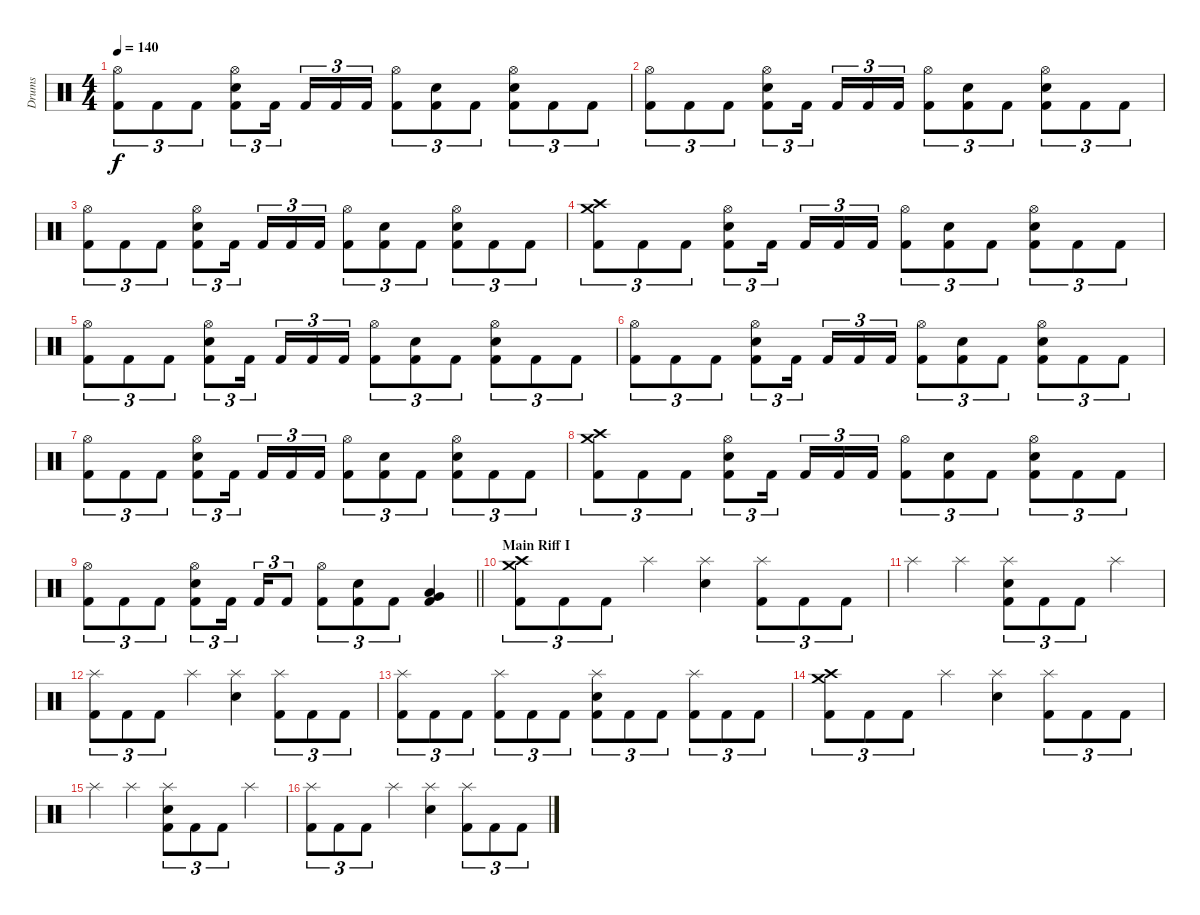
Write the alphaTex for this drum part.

\track ("Drums" "Drums") {instrument percussion}
\staff {score}
\articulation defaults
\ts (4 4)
\tempo 140
\clef neutral
\ks c
("Hi-Hat (open)" "Kick (hit) 2").8{tu (3 2) dy f} "Kick (hit) 2".8{tu (3 2)} "Kick (hit) 2".8{tu (3 2)} ("Hi-Hat (open)" "Electric Snare (hit)" "Kick (hit) 2").8{tu (3 2)} "Kick (hit) 2".16{tu (3 2) beam splitsecondary} "Kick (hit) 2".16{tu (3 2)} "Kick (hit) 2".16{tu (3 2)} "Kick (hit) 2".16{tu (3 2)} ("Hi-Hat (open)" "Kick (hit) 2").8{tu (3 2)} ("Electric Snare (hit)" "Kick (hit) 2").8{tu (3 2)} "Kick (hit) 2".8{tu (3 2)} ("Hi-Hat (open)" "Electric Snare (hit)" "Kick (hit) 2").8{tu (3 2)} "Kick (hit) 2".8{tu (3 2)} "Kick (hit) 2".8{tu (3 2)} |
("Hi-Hat (open)" "Kick (hit) 2").8{tu (3 2)} "Kick (hit) 2".8{tu (3 2)} "Kick (hit) 2".8{tu (3 2)} ("Hi-Hat (open)" "Electric Snare (hit)" "Kick (hit) 2").8{tu (3 2)} "Kick (hit) 2".16{tu (3 2) beam splitsecondary} "Kick (hit) 2".16{tu (3 2)} "Kick (hit) 2".16{tu (3 2)} "Kick (hit) 2".16{tu (3 2)} ("Hi-Hat (open)" "Kick (hit) 2").8{tu (3 2)} ("Electric Snare (hit)" "Kick (hit) 2").8{tu (3 2)} "Kick (hit) 2".8{tu (3 2)} ("Hi-Hat (open)" "Electric Snare (hit)" "Kick (hit) 2").8{tu (3 2)} "Kick (hit) 2".8{tu (3 2)} "Kick (hit) 2".8{tu (3 2)} |
("Hi-Hat (open)" "Kick (hit) 2").8{tu (3 2)} "Kick (hit) 2".8{tu (3 2)} "Kick (hit) 2".8{tu (3 2)} ("Hi-Hat (open)" "Electric Snare (hit)" "Kick (hit) 2").8{tu (3 2)} "Kick (hit) 2".16{tu (3 2) beam splitsecondary} "Kick (hit) 2".16{tu (3 2)} "Kick (hit) 2".16{tu (3 2)} "Kick (hit) 2".16{tu (3 2)} ("Hi-Hat (open)" "Kick (hit) 2").8{tu (3 2)} ("Electric Snare (hit)" "Kick (hit) 2").8{tu (3 2)} "Kick (hit) 2".8{tu (3 2)} ("Hi-Hat (open)" "Electric Snare (hit)" "Kick (hit) 2").8{tu (3 2)} "Kick (hit) 2".8{tu (3 2)} "Kick (hit) 2".8{tu (3 2)} |
("Crash medium (hit)" "Crash high (hit)" "Kick (hit) 2").8{tu (3 2)} "Kick (hit) 2".8{tu (3 2)} "Kick (hit) 2".8{tu (3 2)} ("Hi-Hat (open)" "Electric Snare (hit)" "Kick (hit) 2").8{tu (3 2)} "Kick (hit) 2".16{tu (3 2) beam splitsecondary} "Kick (hit) 2".16{tu (3 2)} "Kick (hit) 2".16{tu (3 2)} "Kick (hit) 2".16{tu (3 2)} ("Hi-Hat (open)" "Kick (hit) 2").8{tu (3 2)} ("Electric Snare (hit)" "Kick (hit) 2").8{tu (3 2)} "Kick (hit) 2".8{tu (3 2)} ("Hi-Hat (open)" "Electric Snare (hit)" "Kick (hit) 2").8{tu (3 2)} "Kick (hit) 2".8{tu (3 2)} "Kick (hit) 2".8{tu (3 2)} |
("Hi-Hat (open)" "Kick (hit) 2").8{tu (3 2)} "Kick (hit) 2".8{tu (3 2)} "Kick (hit) 2".8{tu (3 2)} ("Hi-Hat (open)" "Electric Snare (hit)" "Kick (hit) 2").8{tu (3 2)} "Kick (hit) 2".16{tu (3 2) beam splitsecondary} "Kick (hit) 2".16{tu (3 2)} "Kick (hit) 2".16{tu (3 2)} "Kick (hit) 2".16{tu (3 2)} ("Hi-Hat (open)" "Kick (hit) 2").8{tu (3 2)} ("Electric Snare (hit)" "Kick (hit) 2").8{tu (3 2)} "Kick (hit) 2".8{tu (3 2)} ("Hi-Hat (open)" "Electric Snare (hit)" "Kick (hit) 2").8{tu (3 2)} "Kick (hit) 2".8{tu (3 2)} "Kick (hit) 2".8{tu (3 2)} |
("Hi-Hat (open)" "Kick (hit) 2").8{tu (3 2)} "Kick (hit) 2".8{tu (3 2)} "Kick (hit) 2".8{tu (3 2)} ("Hi-Hat (open)" "Electric Snare (hit)" "Kick (hit) 2").8{tu (3 2)} "Kick (hit) 2".16{tu (3 2) beam splitsecondary} "Kick (hit) 2".16{tu (3 2)} "Kick (hit) 2".16{tu (3 2)} "Kick (hit) 2".16{tu (3 2)} ("Hi-Hat (open)" "Kick (hit) 2").8{tu (3 2)} ("Electric Snare (hit)" "Kick (hit) 2").8{tu (3 2)} "Kick (hit) 2".8{tu (3 2)} ("Hi-Hat (open)" "Electric Snare (hit)" "Kick (hit) 2").8{tu (3 2)} "Kick (hit) 2".8{tu (3 2)} "Kick (hit) 2".8{tu (3 2)} |
("Hi-Hat (open)" "Kick (hit) 2").8{tu (3 2)} "Kick (hit) 2".8{tu (3 2)} "Kick (hit) 2".8{tu (3 2)} ("Hi-Hat (open)" "Electric Snare (hit)" "Kick (hit) 2").8{tu (3 2)} "Kick (hit) 2".16{tu (3 2) beam splitsecondary} "Kick (hit) 2".16{tu (3 2)} "Kick (hit) 2".16{tu (3 2)} "Kick (hit) 2".16{tu (3 2)} ("Hi-Hat (open)" "Kick (hit) 2").8{tu (3 2)} ("Electric Snare (hit)" "Kick (hit) 2").8{tu (3 2)} "Kick (hit) 2".8{tu (3 2)} ("Hi-Hat (open)" "Electric Snare (hit)" "Kick (hit) 2").8{tu (3 2)} "Kick (hit) 2".8{tu (3 2)} "Kick (hit) 2".8{tu (3 2)} |
("Crash medium (hit)" "Crash high (hit)" "Kick (hit) 2").8{tu (3 2)} "Kick (hit) 2".8{tu (3 2)} "Kick (hit) 2".8{tu (3 2)} ("Hi-Hat (open)" "Electric Snare (hit)" "Kick (hit) 2").8{tu (3 2)} "Kick (hit) 2".16{tu (3 2) beam splitsecondary} "Kick (hit) 2".16{tu (3 2)} "Kick (hit) 2".16{tu (3 2)} "Kick (hit) 2".16{tu (3 2)} ("Hi-Hat (open)" "Kick (hit) 2").8{tu (3 2)} ("Electric Snare (hit)" "Kick (hit) 2").8{tu (3 2)} "Kick (hit) 2".8{tu (3 2)} ("Hi-Hat (open)" "Electric Snare (hit)" "Kick (hit) 2").8{tu (3 2)} "Kick (hit) 2".8{tu (3 2)} "Kick (hit) 2".8{tu (3 2)} |
\barLineRight lightlight
("Hi-Hat (open)" "Kick (hit) 2").8{tu (3 2)} "Kick (hit) 2".8{tu (3 2)} "Kick (hit) 2".8{tu (3 2)} ("Hi-Hat (open)" "Electric Snare (hit)" "Kick (hit) 2").8{tu (3 2)} "Kick (hit) 2".16{tu (3 2) beam splitsecondary} "Kick (hit) 2".16{tu (3 2)} "Kick (hit) 2".8{tu (3 2)} ("Hi-Hat (open)" "Kick (hit) 2").8{tu (3 2)} ("Electric Snare (hit)" "Kick (hit) 2").8{tu (3 2)} "Kick (hit) 2".8{tu (3 2)} ("Low Tom (hit)" "Very Low Tom (hit)" "Kick (hit) 2").4 |
\section ("" "Main Riff I")
("Crash medium (hit)" "Crash high (hit)" "Kick (hit) 2").8{tu (3 2)} "Kick (hit) 2".8{tu (3 2)} "Kick (hit) 2".8{tu (3 2)} "Splash (hit)".4 ("Splash (hit)" "Electric Snare (hit)").4 ("Splash (hit)" "Kick (hit) 2").8{tu (3 2)} "Kick (hit) 2".8{tu (3 2)} "Kick (hit) 2".8{tu (3 2)} |
"Splash (hit)".4 "Splash (hit)".4 ("Splash (hit)" "Electric Snare (hit)" "Kick (hit) 2").8{tu (3 2)} "Kick (hit) 2".8{tu (3 2)} "Kick (hit) 2".8{tu (3 2)} "Splash (hit)".4 |
("Splash (hit)" "Kick (hit) 2").8{tu (3 2)} "Kick (hit) 2".8{tu (3 2)} "Kick (hit) 2".8{tu (3 2)} "Splash (hit)".4 ("Splash (hit)" "Electric Snare (hit)").4 ("Splash (hit)" "Kick (hit) 2").8{tu (3 2)} "Kick (hit) 2".8{tu (3 2)} "Kick (hit) 2".8{tu (3 2)} |
("Splash (hit)" "Kick (hit) 2").8{tu (3 2)} "Kick (hit) 2".8{tu (3 2)} "Kick (hit) 2".8{tu (3 2)} ("Splash (hit)" "Kick (hit) 2").8{tu (3 2)} "Kick (hit) 2".8{tu (3 2)} "Kick (hit) 2".8{tu (3 2)} ("Splash (hit)" "Electric Snare (hit)" "Kick (hit) 2").8{tu (3 2)} "Kick (hit) 2".8{tu (3 2)} "Kick (hit) 2".8{tu (3 2)} ("Splash (hit)" "Kick (hit) 2").8{tu (3 2)} "Kick (hit) 2".8{tu (3 2)} "Kick (hit) 2".8{tu (3 2)} |
("Crash medium (hit)" "Crash high (hit)" "Kick (hit) 2").8{tu (3 2)} "Kick (hit) 2".8{tu (3 2)} "Kick (hit) 2".8{tu (3 2)} "Splash (hit)".4 ("Splash (hit)" "Electric Snare (hit)").4 ("Splash (hit)" "Kick (hit) 2").8{tu (3 2)} "Kick (hit) 2".8{tu (3 2)} "Kick (hit) 2".8{tu (3 2)} |
"Splash (hit)".4 "Splash (hit)".4 ("Splash (hit)" "Electric Snare (hit)" "Kick (hit) 2").8{tu (3 2)} "Kick (hit) 2".8{tu (3 2)} "Kick (hit) 2".8{tu (3 2)} "Splash (hit)".4 |
("Splash (hit)" "Kick (hit) 2").8{tu (3 2)} "Kick (hit) 2".8{tu (3 2)} "Kick (hit) 2".8{tu (3 2)} "Splash (hit)".4 ("Splash (hit)" "Electric Snare (hit)").4 ("Splash (hit)" "Kick (hit) 2").8{tu (3 2)} "Kick (hit) 2".8{tu (3 2)} "Kick (hit) 2".8{tu (3 2)}
